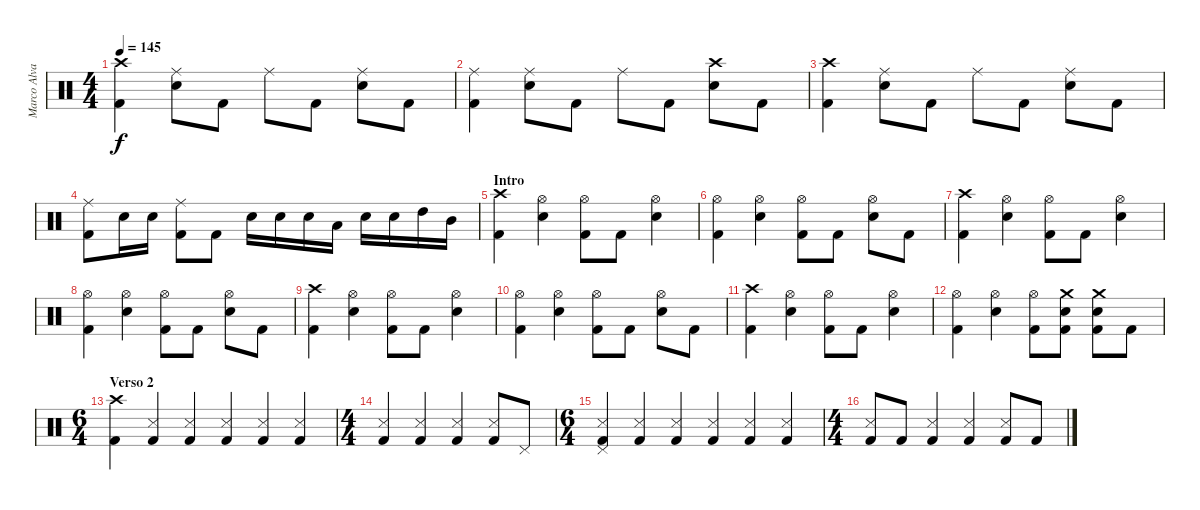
\track ("Marco Alvarez" "Marco Alva") {instrument percussion}
\staff {score}
\articulation defaults
\ts (4 4)
\tempo 145
\clef neutral
\ks c
("Kick (hit) 2" "Crash high (hit)").4{dy f} ("Electric Snare (hit)" "Ride (middle)").8 "Kick (hit) 2".8 "Ride (middle)".8 "Kick (hit) 2".8 ("Electric Snare (hit)" "Ride (middle)").8 "Kick (hit) 2".8 |
("Kick (hit) 2" "Ride (middle)").4 ("Electric Snare (hit)" "Ride (middle)").8 "Kick (hit) 2".8 "Ride (middle)".8 "Kick (hit) 2".8 ("Electric Snare (hit)" "Crash high (hit)").8 "Kick (hit) 2".8 |
("Kick (hit) 2" "Crash high (hit)").4 ("Electric Snare (hit)" "Ride (middle)").8 "Kick (hit) 2".8 "Ride (middle)".8 "Kick (hit) 2".8 ("Electric Snare (hit)" "Ride (middle)").8 "Kick (hit) 2".8 |
("Kick (hit) 2" "Ride (middle)").8 "Electric Snare (hit)".16 "Electric Snare (hit)".16 ("Kick (hit) 2" "Ride (middle)").8 "Kick (hit) 2".8 "Electric Snare (hit)".16 "Electric Snare (hit)".16 "Electric Snare (hit)".16 "Low Tom (hit)".16 "Electric Snare (hit)".16 "Electric Snare (hit)".16 "High Tom (hit)".16 "Mid Tom (hit)".16 |
\section ("" "Intro")
("Kick (hit) 2" "Crash high (hit)").4 ("Electric Snare (hit)" "Hi-Hat (open)").4 ("Kick (hit) 2" "Hi-Hat (open)").8 "Kick (hit) 2".8 ("Electric Snare (hit)" "Hi-Hat (open)").4 |
("Kick (hit) 2" "Hi-Hat (open)").4 ("Electric Snare (hit)" "Hi-Hat (open)").4 ("Kick (hit) 2" "Hi-Hat (open)").8 "Kick (hit) 2".8 ("Electric Snare (hit)" "Hi-Hat (open)").8 "Kick (hit) 2".8 |
("Kick (hit) 2" "Crash high (hit)").4 ("Electric Snare (hit)" "Hi-Hat (open)").4 ("Kick (hit) 2" "Hi-Hat (open)").8 "Kick (hit) 2".8 ("Electric Snare (hit)" "Hi-Hat (open)").4 |
("Kick (hit) 2" "Hi-Hat (open)").4 ("Electric Snare (hit)" "Hi-Hat (open)").4 ("Kick (hit) 2" "Hi-Hat (open)").8 "Kick (hit) 2".8 ("Electric Snare (hit)" "Hi-Hat (open)").8 "Kick (hit) 2".8 |
("Kick (hit) 2" "Crash high (hit)").4 ("Electric Snare (hit)" "Hi-Hat (open)").4 ("Kick (hit) 2" "Hi-Hat (open)").8 "Kick (hit) 2".8 ("Electric Snare (hit)" "Hi-Hat (open)").4 |
("Kick (hit) 2" "Hi-Hat (open)").4 ("Electric Snare (hit)" "Hi-Hat (open)").4 ("Kick (hit) 2" "Hi-Hat (open)").8 "Kick (hit) 2".8 ("Electric Snare (hit)" "Hi-Hat (open)").8 "Kick (hit) 2".8 |
("Kick (hit) 2" "Crash high (hit)").4 ("Electric Snare (hit)" "Hi-Hat (open)").4 ("Kick (hit) 2" "Hi-Hat (open)").8 "Kick (hit) 2".8 ("Electric Snare (hit)" "Hi-Hat (open)").4 |
("Kick (hit) 2" "Hi-Hat (open)").4 ("Electric Snare (hit)" "Hi-Hat (open)").4 ("Kick (hit) 2" "Hi-Hat (open)").8 ("Kick (hit) 2" "Electric Snare (hit)" "Crash medium (hit)").8 ("Kick (hit) 2" "Electric Snare (hit)" "Crash medium (hit)").8 "Kick (hit) 2".8 |
\ts (6 4)
\section ("" "Verso 2")
("Kick (hit) 2" "Crash high (hit)").4 ("Kick (hit) 2" "Snare (side stick) 3").4 ("Kick (hit) 2" "Snare (side stick) 3").4 ("Kick (hit) 2" "Snare (side stick) 3").4 ("Kick (hit) 2" "Snare (side stick) 3").4 ("Kick (hit) 2" "Snare (side stick) 3").4 |
\ts (4 4)
("Kick (hit) 2" "Snare (side stick) 3").4 ("Kick (hit) 2" "Snare (side stick) 3").4 ("Kick (hit) 2" "Snare (side stick) 3").4 ("Kick (hit) 2" "Snare (side stick) 3").8 "Pedal Hi-Hat (hit)".8 |
\ts (6 4)
("Kick (hit) 2" "Snare (side stick) 3" "Pedal Hi-Hat (hit)").4 ("Kick (hit) 2" "Snare (side stick) 3").4 ("Kick (hit) 2" "Snare (side stick) 3").4 ("Kick (hit) 2" "Snare (side stick) 3").4 ("Kick (hit) 2" "Snare (side stick) 3").4 ("Kick (hit) 2" "Snare (side stick) 3").4 |
\ts (4 4)
("Kick (hit) 2" "Snare (side stick) 3").8 "Kick (hit) 2".8 ("Kick (hit) 2" "Snare (side stick) 3").4 ("Kick (hit) 2" "Snare (side stick) 3").4 ("Kick (hit) 2" "Snare (side stick) 3").8 "Kick (hit) 2".8
